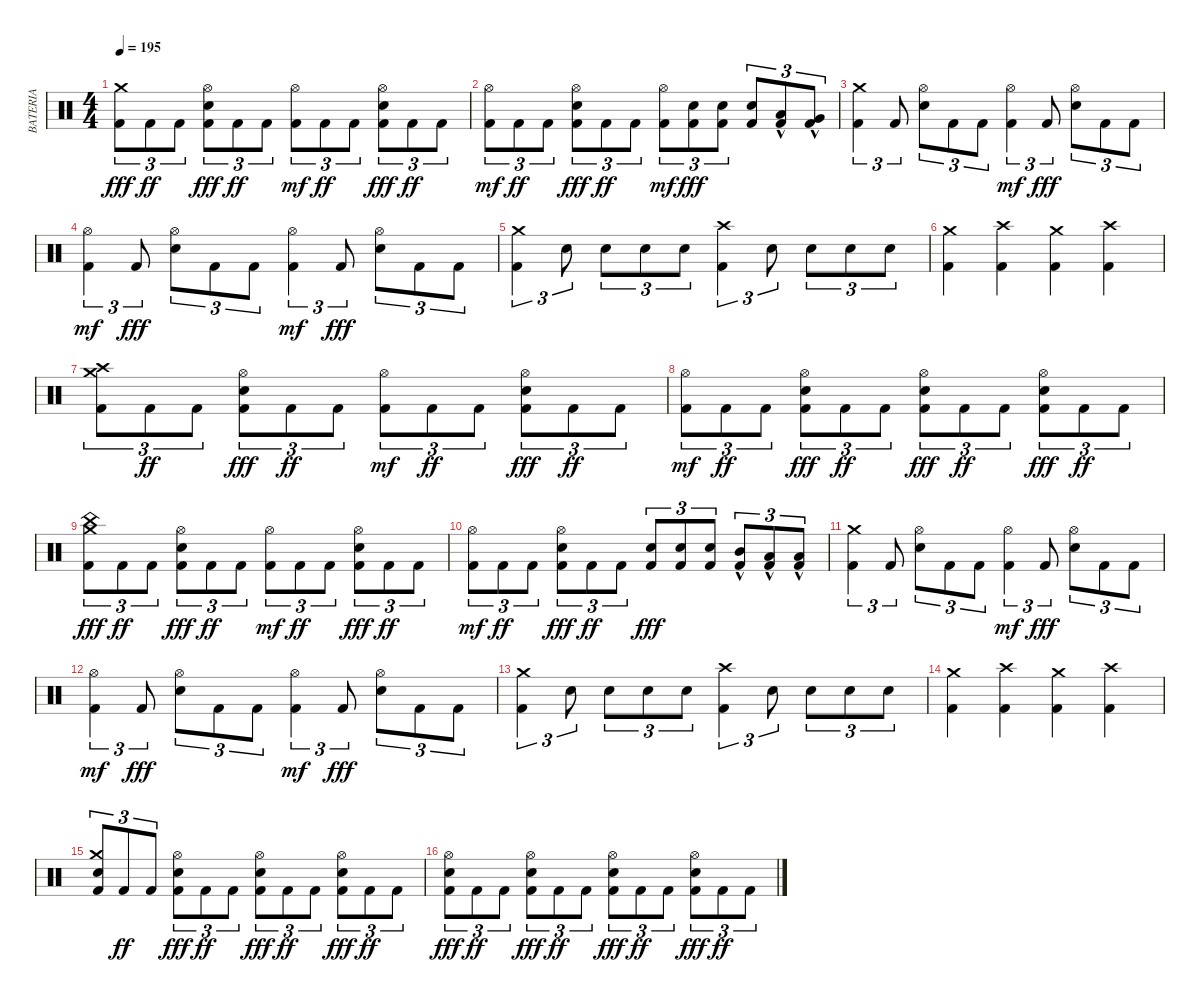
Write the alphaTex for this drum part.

\track ("BATERIA" "BATERIA") {instrument percussion}
\staff
\articulation defaults
\ts (4 4)
\tempo 195
\clef neutral
\ks c
("Kick (hit) 2" "Crash medium (hit)").8{tu (3 2) dy fff} "Kick (hit) 2".8{tu (3 2) dy ff} "Kick (hit) 2".8{tu (3 2)} ("Kick (hit) 2" "Electric Snare (hit)" "Hi-Hat (open)").8{tu (3 2) dy fff} "Kick (hit) 2".8{tu (3 2) dy ff} "Kick (hit) 2".8{tu (3 2)} ("Kick (hit) 2" "Hi-Hat (open)").8{tu (3 2) dy mf} "Kick (hit) 2".8{tu (3 2) dy ff} "Kick (hit) 2".8{tu (3 2)} ("Kick (hit) 2" "Electric Snare (hit)" "Hi-Hat (open)").8{tu (3 2) dy fff} "Kick (hit) 2".8{tu (3 2) dy ff} "Kick (hit) 2".8{tu (3 2)} |
("Kick (hit) 2" "Hi-Hat (open)").8{tu (3 2) dy mf} "Kick (hit) 2".8{tu (3 2) dy ff} "Kick (hit) 2".8{tu (3 2)} ("Kick (hit) 2" "Electric Snare (hit)" "Hi-Hat (open)").8{tu (3 2) dy fff} "Kick (hit) 2".8{tu (3 2) dy ff} "Kick (hit) 2".8{tu (3 2)} ("Kick (hit) 2" "Hi-Hat (open)").8{tu (3 2) dy mf} ("Kick (hit) 2" "Electric Snare (hit)").8{tu (3 2) dy fff} ("Kick (hit) 2" "Electric Snare (hit)").8{tu (3 2)} ("Kick (hit) 2" "Electric Snare (hit)").8{tu (3 2)} ("Kick (hit) 2" "Low Tom (hit)"{hac}).8{tu (3 2)} ("Kick (hit) 2" "Very Low Tom (hit)"{hac}).8{tu (3 2)} |
("Kick (hit) 2" "Crash medium (hit)").4{tu (3 2)} "Kick (hit) 2".8{tu (3 2)} ("Electric Snare (hit)" "Hi-Hat (open)").8{tu (3 2)} "Kick (hit) 2".8{tu (3 2)} "Kick (hit) 2".8{tu (3 2)} ("Kick (hit) 2" "Hi-Hat (open)").4{tu (3 2) dy mf} "Kick (hit) 2".8{tu (3 2) dy fff} ("Electric Snare (hit)" "Hi-Hat (open)").8{tu (3 2)} "Kick (hit) 2".8{tu (3 2)} "Kick (hit) 2".8{tu (3 2)} |
("Kick (hit) 2" "Hi-Hat (open)").4{tu (3 2) dy mf} "Kick (hit) 2".8{tu (3 2) dy fff} ("Electric Snare (hit)" "Hi-Hat (open)").8{tu (3 2)} "Kick (hit) 2".8{tu (3 2)} "Kick (hit) 2".8{tu (3 2)} ("Kick (hit) 2" "Hi-Hat (open)").4{tu (3 2) dy mf} "Kick (hit) 2".8{tu (3 2) dy fff} ("Electric Snare (hit)" "Hi-Hat (open)").8{tu (3 2)} "Kick (hit) 2".8{tu (3 2)} "Kick (hit) 2".8{tu (3 2)} |
("Kick (hit) 2" "Crash medium (hit)").4{tu (3 2)} "Electric Snare (hit)".8{tu (3 2)} "Electric Snare (hit)".8{tu (3 2)} "Electric Snare (hit)".8{tu (3 2)} "Electric Snare (hit)".8{tu (3 2)} ("Kick (hit) 2" "Crash high (hit)").4{tu (3 2)} "Electric Snare (hit)".8{tu (3 2)} "Electric Snare (hit)".8{tu (3 2)} "Electric Snare (hit)".8{tu (3 2)} "Electric Snare (hit)".8{tu (3 2)} |
("Kick (hit) 2" "Crash medium (hit)").4 ("Kick (hit) 2" "Crash high (hit)").4 ("Kick (hit) 2" "Crash medium (hit)").4 ("Kick (hit) 2" "Crash high (hit)").4 |
("Kick (hit) 2" "Crash high (hit)" "Crash medium (hit)").8{tu (3 2)} "Kick (hit) 2".8{tu (3 2) dy ff} "Kick (hit) 2".8{tu (3 2)} ("Kick (hit) 2" "Electric Snare (hit)" "Hi-Hat (open)").8{tu (3 2) dy fff} "Kick (hit) 2".8{tu (3 2) dy ff} "Kick (hit) 2".8{tu (3 2)} ("Kick (hit) 2" "Hi-Hat (open)").8{tu (3 2) dy mf} "Kick (hit) 2".8{tu (3 2) dy ff} "Kick (hit) 2".8{tu (3 2)} ("Kick (hit) 2" "Electric Snare (hit)" "Hi-Hat (open)").8{tu (3 2) dy fff} "Kick (hit) 2".8{tu (3 2) dy ff} "Kick (hit) 2".8{tu (3 2)} |
("Kick (hit) 2" "Hi-Hat (open)").8{tu (3 2) dy mf} "Kick (hit) 2".8{tu (3 2) dy ff} "Kick (hit) 2".8{tu (3 2)} ("Kick (hit) 2" "Electric Snare (hit)" "Hi-Hat (open)").8{tu (3 2) dy fff} "Kick (hit) 2".8{tu (3 2) dy ff} "Kick (hit) 2".8{tu (3 2)} ("Kick (hit) 2" "Electric Snare (hit)" "Hi-Hat (open)").8{tu (3 2) dy fff} "Kick (hit) 2".8{tu (3 2) dy ff} "Kick (hit) 2".8{tu (3 2)} ("Kick (hit) 2" "Electric Snare (hit)" "Hi-Hat (open)").8{tu (3 2) dy fff} "Kick (hit) 2".8{tu (3 2) dy ff} "Kick (hit) 2".8{tu (3 2)} |
("Kick (hit) 2" "Crash medium (hit)" "China (hit)").8{tu (3 2) dy fff} "Kick (hit) 2".8{tu (3 2) dy ff} "Kick (hit) 2".8{tu (3 2)} ("Kick (hit) 2" "Electric Snare (hit)" "Hi-Hat (open)").8{tu (3 2) dy fff} "Kick (hit) 2".8{tu (3 2) dy ff} "Kick (hit) 2".8{tu (3 2)} ("Kick (hit) 2" "Hi-Hat (open)").8{tu (3 2) dy mf} "Kick (hit) 2".8{tu (3 2) dy ff} "Kick (hit) 2".8{tu (3 2)} ("Kick (hit) 2" "Electric Snare (hit)" "Hi-Hat (open)").8{tu (3 2) dy fff} "Kick (hit) 2".8{tu (3 2) dy ff} "Kick (hit) 2".8{tu (3 2)} |
("Kick (hit) 2" "Hi-Hat (open)").8{tu (3 2) dy mf} "Kick (hit) 2".8{tu (3 2) dy ff} "Kick (hit) 2".8{tu (3 2)} ("Kick (hit) 2" "Electric Snare (hit)" "Hi-Hat (open)").8{tu (3 2) dy fff} "Kick (hit) 2".8{tu (3 2) dy ff} "Kick (hit) 2".8{tu (3 2)} ("Kick (hit) 2" "Electric Snare (hit)").8{tu (3 2) dy fff} ("Kick (hit) 2" "Electric Snare (hit)").8{tu (3 2)} ("Kick (hit) 2" "Electric Snare (hit)").8{tu (3 2)} ("Kick (hit) 2" "Mid Tom (hit)"{hac}).8{tu (3 2)} ("Kick (hit) 2" "Low Tom (hit)"{hac}).8{tu (3 2)} ("Kick (hit) 2" "Low Tom (hit)"{hac}).8{tu (3 2)} |
("Kick (hit) 2" "Crash medium (hit)").4{tu (3 2)} "Kick (hit) 2".8{tu (3 2)} ("Electric Snare (hit)" "Hi-Hat (open)").8{tu (3 2)} "Kick (hit) 2".8{tu (3 2)} "Kick (hit) 2".8{tu (3 2)} ("Kick (hit) 2" "Hi-Hat (open)").4{tu (3 2) dy mf} "Kick (hit) 2".8{tu (3 2) dy fff} ("Electric Snare (hit)" "Hi-Hat (open)").8{tu (3 2)} "Kick (hit) 2".8{tu (3 2)} "Kick (hit) 2".8{tu (3 2)} |
("Kick (hit) 2" "Hi-Hat (open)").4{tu (3 2) dy mf} "Kick (hit) 2".8{tu (3 2) dy fff} ("Electric Snare (hit)" "Hi-Hat (open)").8{tu (3 2)} "Kick (hit) 2".8{tu (3 2)} "Kick (hit) 2".8{tu (3 2)} ("Kick (hit) 2" "Hi-Hat (open)").4{tu (3 2) dy mf} "Kick (hit) 2".8{tu (3 2) dy fff} ("Electric Snare (hit)" "Hi-Hat (open)").8{tu (3 2)} "Kick (hit) 2".8{tu (3 2)} "Kick (hit) 2".8{tu (3 2)} |
("Kick (hit) 2" "Crash medium (hit)").4{tu (3 2)} "Electric Snare (hit)".8{tu (3 2)} "Electric Snare (hit)".8{tu (3 2)} "Electric Snare (hit)".8{tu (3 2)} "Electric Snare (hit)".8{tu (3 2)} ("Kick (hit) 2" "Crash high (hit)").4{tu (3 2)} "Electric Snare (hit)".8{tu (3 2)} "Electric Snare (hit)".8{tu (3 2)} "Electric Snare (hit)".8{tu (3 2)} "Electric Snare (hit)".8{tu (3 2)} |
("Kick (hit) 2" "Crash medium (hit)").4 ("Kick (hit) 2" "Crash high (hit)").4 ("Kick (hit) 2" "Crash medium (hit)").4 ("Kick (hit) 2" "Crash high (hit)").4 |
("Kick (hit) 2" "Electric Snare (hit)" "Crash medium (hit)").8{tu (3 2)} "Kick (hit) 2".8{tu (3 2) dy ff} "Kick (hit) 2".8{tu (3 2)} ("Kick (hit) 2" "Electric Snare (hit)" "Hi-Hat (open)").8{tu (3 2) dy fff} "Kick (hit) 2".8{tu (3 2) dy ff} "Kick (hit) 2".8{tu (3 2)} ("Kick (hit) 2" "Electric Snare (hit)" "Hi-Hat (open)").8{tu (3 2) dy fff} "Kick (hit) 2".8{tu (3 2) dy ff} "Kick (hit) 2".8{tu (3 2)} ("Kick (hit) 2" "Electric Snare (hit)" "Hi-Hat (open)").8{tu (3 2) dy fff} "Kick (hit) 2".8{tu (3 2) dy ff} "Kick (hit) 2".8{tu (3 2)} |
("Kick (hit) 2" "Electric Snare (hit)" "Hi-Hat (open)").8{tu (3 2) dy fff} "Kick (hit) 2".8{tu (3 2) dy ff} "Kick (hit) 2".8{tu (3 2)} ("Kick (hit) 2" "Electric Snare (hit)" "Hi-Hat (open)").8{tu (3 2) dy fff} "Kick (hit) 2".8{tu (3 2) dy ff} "Kick (hit) 2".8{tu (3 2)} ("Kick (hit) 2" "Electric Snare (hit)" "Hi-Hat (open)").8{tu (3 2) dy fff} "Kick (hit) 2".8{tu (3 2) dy ff} "Kick (hit) 2".8{tu (3 2)} ("Kick (hit) 2" "Electric Snare (hit)" "Hi-Hat (open)").8{tu (3 2) dy fff} "Kick (hit) 2".8{tu (3 2) dy ff} "Kick (hit) 2".8{tu (3 2)}
